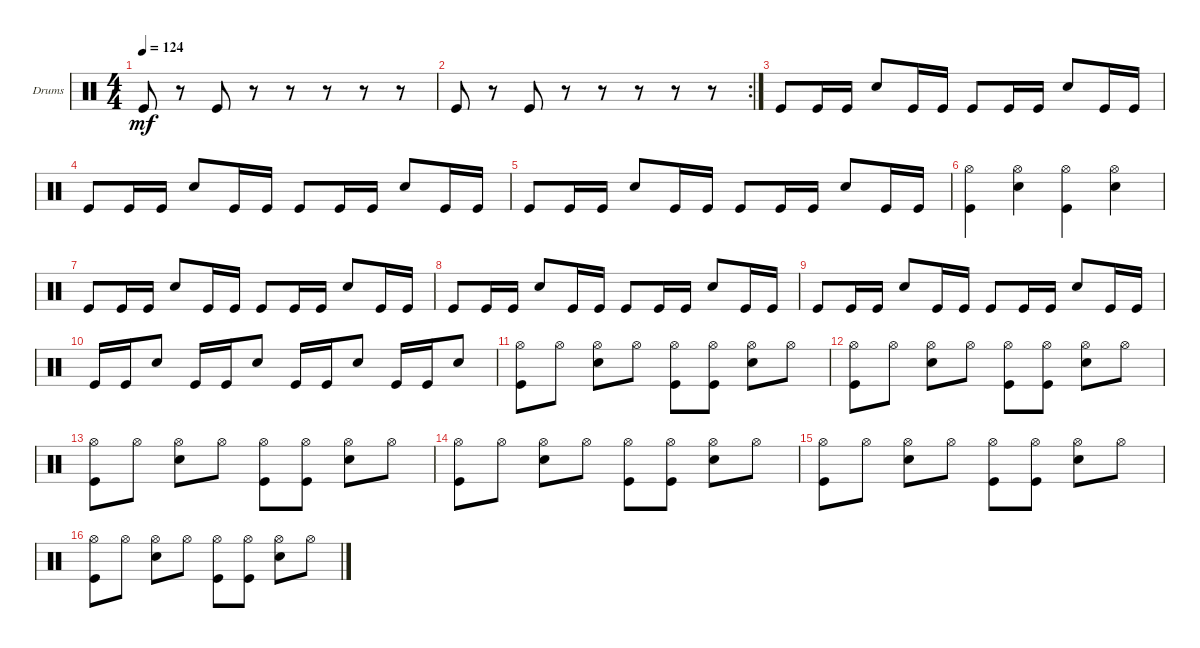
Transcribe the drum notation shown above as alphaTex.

\defaultSystemsLayout 4
\bracketExtendMode groupsimilarinstruments
\firstSystemTrackNameOrientation horizontal
\otherSystemsTrackNameOrientation horizontal
\track ("Drumkit" "Drums") {solo instrument percussion}
\staff {score}
\articulation defaults
\ts (4 4)
\tempo 124
\clef neutral
\ks c "Kick (hit)".8{dy mf}
r.8 "Kick (hit)".8 r.8 r.8 r.8 r.8 r.8 |
\rc 2 "Kick (hit)".8
r.8 "Kick (hit)".8 r.8 r.8 r.8 r.8 r.8 |
"Kick (hit)".8 "Kick (hit)".16 "Kick (hit)".16 "Snare (hit) 2".8 "Kick (hit)".16 "Kick (hit)".16 "Kick (hit)".8 "Kick (hit)".16 "Kick (hit)".16 "Snare (hit) 2".8 "Kick (hit)".16 "Kick (hit)".16 |
"Kick (hit)".8 "Kick (hit)".16 "Kick (hit)".16 "Snare (hit) 2".8 "Kick (hit)".16 "Kick (hit)".16 "Kick (hit)".8 "Kick (hit)".16 "Kick (hit)".16 "Snare (hit) 2".8 "Kick (hit)".16 "Kick (hit)".16 |
"Kick (hit)".8 "Kick (hit)".16 "Kick (hit)".16 "Snare (hit) 2".8 "Kick (hit)".16 "Kick (hit)".16 "Kick (hit)".8 "Kick (hit)".16 "Kick (hit)".16 "Snare (hit) 2".8 "Kick (hit)".16 "Kick (hit)".16 |
("Kick (hit)" "Hi-Hat (open)").4 ("Snare (hit) 2" "Hi-Hat (open)").4 ("Kick (hit)" "Hi-Hat (open)").4 ("Snare (hit) 2" "Hi-Hat (open)").4 |
"Kick (hit)".8 "Kick (hit)".16 "Kick (hit)".16 "Snare (hit) 2".8 "Kick (hit)".16 "Kick (hit)".16 "Kick (hit)".8 "Kick (hit)".16 "Kick (hit)".16 "Snare (hit) 2".8 "Kick (hit)".16 "Kick (hit)".16 |
"Kick (hit)".8 "Kick (hit)".16 "Kick (hit)".16 "Snare (hit) 2".8 "Kick (hit)".16 "Kick (hit)".16 "Kick (hit)".8 "Kick (hit)".16 "Kick (hit)".16 "Snare (hit) 2".8 "Kick (hit)".16 "Kick (hit)".16 |
"Kick (hit)".8 "Kick (hit)".16 "Kick (hit)".16 "Snare (hit) 2".8 "Kick (hit)".16 "Kick (hit)".16 "Kick (hit)".8 "Kick (hit)".16 "Kick (hit)".16 "Snare (hit) 2".8 "Kick (hit)".16 "Kick (hit)".16 |
"Kick (hit)".16 "Kick (hit)".16 "Snare (hit) 2".8 "Kick (hit)".16 "Kick (hit)".16 "Snare (hit) 2".8 "Kick (hit)".16 "Kick (hit)".16 "Snare (hit) 2".8 "Kick (hit)".16 "Kick (hit)".16 "Snare (hit) 2".8 |
("Kick (hit)" "Hi-Hat (open)").8 "Hi-Hat (open)".8 ("Hi-Hat (open)" "Snare (hit) 2").8 "Hi-Hat (open)".8 ("Hi-Hat (open)" "Kick (hit)").8 ("Hi-Hat (open)" "Kick (hit)").8 ("Hi-Hat (open)" "Snare (hit) 2").8 "Hi-Hat (open)".8 |
("Kick (hit)" "Hi-Hat (open)").8 "Hi-Hat (open)".8 ("Hi-Hat (open)" "Snare (hit) 2").8 "Hi-Hat (open)".8 ("Hi-Hat (open)" "Kick (hit)").8 ("Hi-Hat (open)" "Kick (hit)").8 ("Hi-Hat (open)" "Snare (hit) 2").8 "Hi-Hat (open)".8 |
("Kick (hit)" "Hi-Hat (open)").8 "Hi-Hat (open)".8 ("Hi-Hat (open)" "Snare (hit) 2").8 "Hi-Hat (open)".8 ("Hi-Hat (open)" "Kick (hit)").8 ("Hi-Hat (open)" "Kick (hit)").8 ("Hi-Hat (open)" "Snare (hit) 2").8 "Hi-Hat (open)".8 |
("Kick (hit)" "Hi-Hat (open)").8 "Hi-Hat (open)".8 ("Hi-Hat (open)" "Snare (hit) 2").8 "Hi-Hat (open)".8 ("Hi-Hat (open)" "Kick (hit)").8 ("Hi-Hat (open)" "Kick (hit)").8 ("Hi-Hat (open)" "Snare (hit) 2").8 "Hi-Hat (open)".8 |
("Kick (hit)" "Hi-Hat (open)").8 "Hi-Hat (open)".8 ("Hi-Hat (open)" "Snare (hit) 2").8 "Hi-Hat (open)".8 ("Hi-Hat (open)" "Kick (hit)").8 ("Hi-Hat (open)" "Kick (hit)").8 ("Hi-Hat (open)" "Snare (hit) 2").8 "Hi-Hat (open)".8 |
("Kick (hit)" "Hi-Hat (open)").8 "Hi-Hat (open)".8 ("Hi-Hat (open)" "Snare (hit) 2").8 "Hi-Hat (open)".8 ("Hi-Hat (open)" "Kick (hit)").8 ("Hi-Hat (open)" "Kick (hit)").8 ("Hi-Hat (open)" "Snare (hit) 2").8 "Hi-Hat (open)".8
